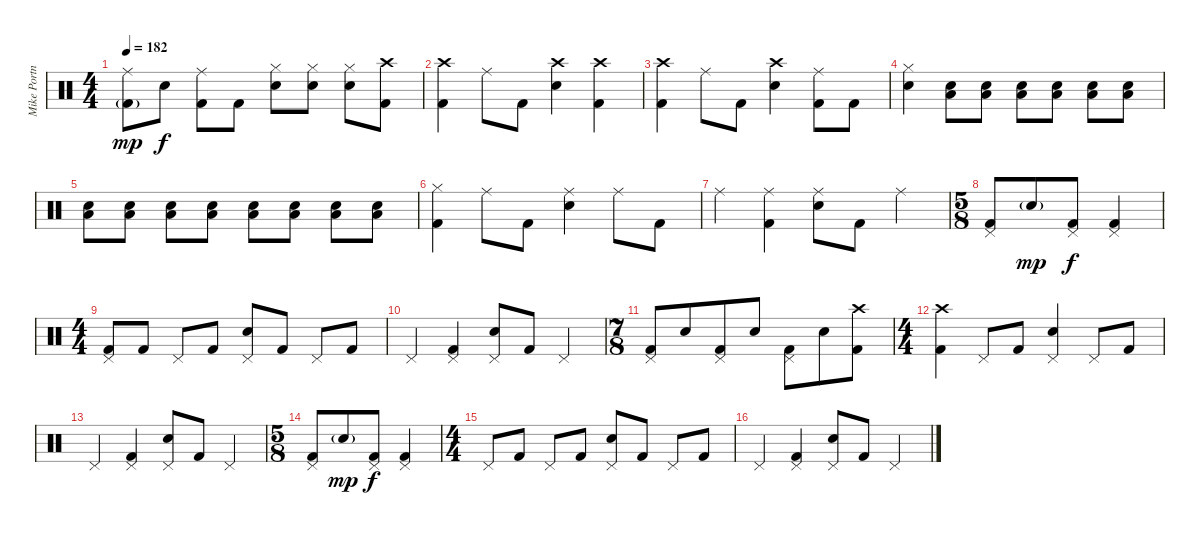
\track ("Mike Portnoy" "Mike Portn") {instrument percussion}
\staff {score}
\articulation defaults
\ts (4 4)
\tempo 182
\clef neutral
\ks c
("Ride (middle)" "Kick (hit) 2"{g}).8{dy mp} "Electric Snare (hit)".8{dy f} ("Ride (middle)" "Kick (hit) 2").8 "Kick (hit) 2".8 ("Hi-Hat (closed)" "Electric Snare (hit)").8 ("Hi-Hat (closed)" "Electric Snare (hit)").8 ("Hi-Hat (closed)" "Electric Snare (hit)").8 ("Crash high (hit)" "Kick (hit) 2").8 |
("Crash high (hit)" "Kick (hit) 2").4 "Ride (middle)".8 "Kick (hit) 2".8 ("Crash high (hit)" "Electric Snare (hit)").4 ("Crash high (hit)" "Kick (hit) 2").4 |
("Crash high (hit)" "Kick (hit) 2").4 "Ride (middle)".8 "Kick (hit) 2".8 ("Crash high (hit)" "Electric Snare (hit)").4 ("Ride (middle)" "Kick (hit) 2").8 "Kick (hit) 2".8 |
("Hi-Hat (closed)" "Electric Snare (hit)").4 ("Electric Snare (hit)" "Low Floor Tom (hit)").8 ("Electric Snare (hit)" "Low Floor Tom (hit)").8 ("Electric Snare (hit)" "Low Floor Tom (hit)").8 ("Electric Snare (hit)" "Low Floor Tom (hit)").8 ("Electric Snare (hit)" "Low Floor Tom (hit)").8 ("Electric Snare (hit)" "Low Floor Tom (hit)").8 |
("Electric Snare (hit)" "Low Floor Tom (hit)").8 ("Electric Snare (hit)" "Low Floor Tom (hit)").8 ("Electric Snare (hit)" "Low Floor Tom (hit)").8 ("Electric Snare (hit)" "Low Floor Tom (hit)").8 ("Electric Snare (hit)" "Low Floor Tom (hit)").8 ("Electric Snare (hit)" "Low Floor Tom (hit)").8 ("Electric Snare (hit)" "Low Floor Tom (hit)").8 ("Electric Snare (hit)" "Low Floor Tom (hit)").8 |
("Hi-Hat (closed)" "Kick (hit) 2").4 "Ride (middle)".8 "Kick (hit) 2".8 ("Ride (middle)" "Electric Snare (hit)").4 "Ride (middle)".8 "Kick (hit) 2".8 |
"Ride (middle)".4 ("Ride (middle)" "Kick (hit) 2").4 ("Ride (middle)" "Electric Snare (hit)").8 "Kick (hit) 2".8 "Ride (middle)".4 |
\ts (5 8)
("Pedal Hi-Hat (hit)" "Kick (hit) 2").8 "Electric Snare (hit)"{g}.8{dy mp} ("Pedal Hi-Hat (hit)" "Kick (hit) 2").8{dy f} ("Pedal Hi-Hat (hit)" "Kick (hit) 2").4 |
\ts (4 4)
("Pedal Hi-Hat (hit)" "Kick (hit) 2").8 "Kick (hit) 2".8 "Pedal Hi-Hat (hit)".8 "Kick (hit) 2".8 ("Pedal Hi-Hat (hit)" "Electric Snare (hit)").8 "Kick (hit) 2".8 "Pedal Hi-Hat (hit)".8 "Kick (hit) 2".8 |
"Pedal Hi-Hat (hit)".4 ("Pedal Hi-Hat (hit)" "Kick (hit) 2").4 ("Pedal Hi-Hat (hit)" "Electric Snare (hit)").8 "Kick (hit) 2".8 "Pedal Hi-Hat (hit)".4 |
\ts (7 8)
("Pedal Hi-Hat (hit)" "Kick (hit) 2").8 "Electric Snare (hit)".8 ("Pedal Hi-Hat (hit)" "Kick (hit) 2").8 "Electric Snare (hit)".8 ("Pedal Hi-Hat (hit)" "Kick (hit) 2").8 "Electric Snare (hit)".8 ("Crash high (hit)" "Kick (hit) 2").8 |
\ts (4 4)
("Crash high (hit)" "Kick (hit) 2").4 "Pedal Hi-Hat (hit)".8 "Kick (hit) 2".8 ("Pedal Hi-Hat (hit)" "Electric Snare (hit)").4 "Pedal Hi-Hat (hit)".8 "Kick (hit) 2".8 |
"Pedal Hi-Hat (hit)".4 ("Pedal Hi-Hat (hit)" "Kick (hit) 2").4 ("Pedal Hi-Hat (hit)" "Electric Snare (hit)").8 "Kick (hit) 2".8 "Pedal Hi-Hat (hit)".4 |
\ts (5 8)
("Pedal Hi-Hat (hit)" "Kick (hit) 2").8 "Electric Snare (hit)"{g}.8{dy mp} ("Pedal Hi-Hat (hit)" "Kick (hit) 2").8{dy f} ("Pedal Hi-Hat (hit)" "Kick (hit) 2").4 |
\ts (4 4)
"Pedal Hi-Hat (hit)".8 "Kick (hit) 2".8 "Pedal Hi-Hat (hit)".8 "Kick (hit) 2".8 ("Pedal Hi-Hat (hit)" "Electric Snare (hit)").8 "Kick (hit) 2".8 "Pedal Hi-Hat (hit)".8 "Kick (hit) 2".8 |
"Pedal Hi-Hat (hit)".4 ("Pedal Hi-Hat (hit)" "Kick (hit) 2").4 ("Pedal Hi-Hat (hit)" "Electric Snare (hit)").8 "Kick (hit) 2".8 "Pedal Hi-Hat (hit)".4
